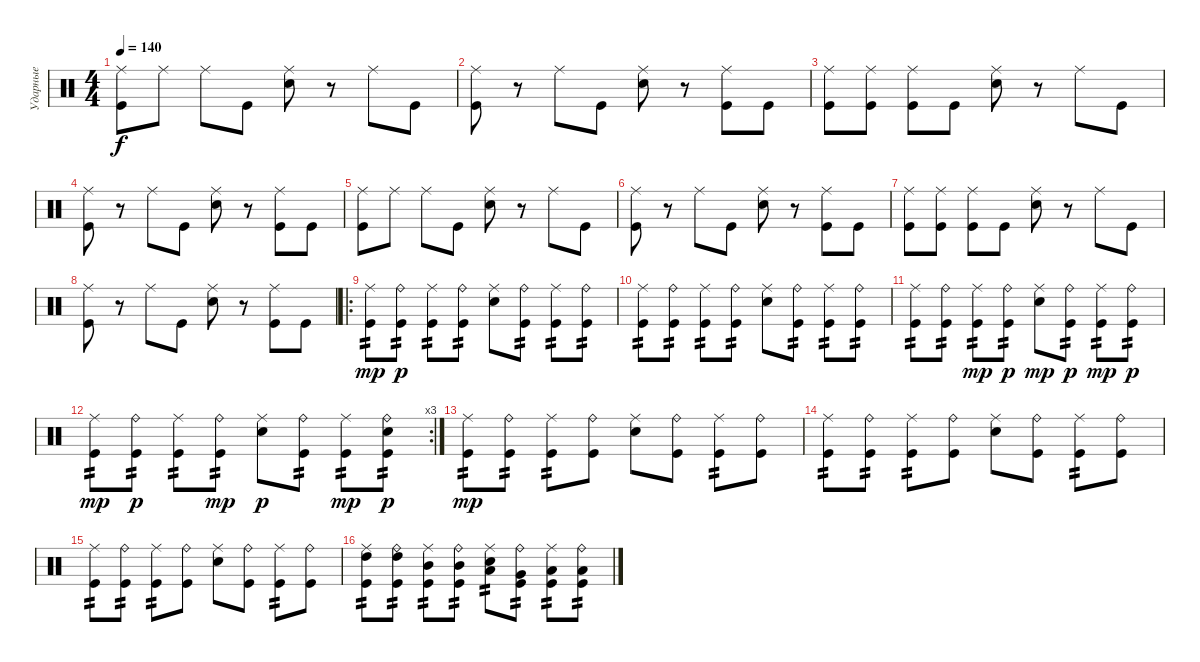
\track ("Ударные" "Ударные") {instrument percussion}
\staff {score}
\articulation defaults
\ts (4 4)
\tempo 140
\clef neutral
\ks c
("Ride (middle)" "Kick (hit)").8{dy f} "Ride (middle)".8 "Ride (middle)".8 "Kick (hit)".8 ("Ride (middle)" "Electric Snare (hit)").8 r.8 "Ride (middle)".8 "Kick (hit)".8 |
("Ride (middle)" "Kick (hit)").8 r.8 "Ride (middle)".8 "Kick (hit)".8 ("Ride (middle)" "Electric Snare (hit)").8 r.8 ("Ride (middle)" "Kick (hit)").8 "Kick (hit)".8 |
("Ride (middle)" "Kick (hit)").8 ("Ride (middle)" "Kick (hit)").8 ("Ride (middle)" "Kick (hit)").8 "Kick (hit)".8 ("Ride (middle)" "Electric Snare (hit)").8 r.8 "Ride (middle)".8 "Kick (hit)".8 |
("Ride (middle)" "Kick (hit)").8 r.8 "Ride (middle)".8 "Kick (hit)".8 ("Ride (middle)" "Electric Snare (hit)").8 r.8 ("Ride (middle)" "Kick (hit)").8 "Kick (hit)".8 |
("Ride (middle)" "Kick (hit)").8 "Ride (middle)".8 "Ride (middle)".8 "Kick (hit)".8 ("Ride (middle)" "Electric Snare (hit)").8 r.8 "Ride (middle)".8 "Kick (hit)".8 |
("Ride (middle)" "Kick (hit)").8 r.8 "Ride (middle)".8 "Kick (hit)".8 ("Ride (middle)" "Electric Snare (hit)").8 r.8 ("Ride (middle)" "Kick (hit)").8 "Kick (hit)".8 |
("Ride (middle)" "Kick (hit)").8 ("Ride (middle)" "Kick (hit)").8 ("Ride (middle)" "Kick (hit)").8 "Kick (hit)".8 ("Ride (middle)" "Electric Snare (hit)").8 r.8 "Ride (middle)".8 "Kick (hit)".8 |
("Ride (middle)" "Kick (hit)").8 r.8 "Ride (middle)".8 "Kick (hit)".8 ("Ride (middle)" "Electric Snare (hit)").8 r.8 ("Ride (middle)" "Kick (hit)").8 "Kick (hit)".8 |
\ro
("Ride (middle)" "Kick (hit)").8{tp 2 dy mp} ("Ride (bell)" "Kick (hit)").8{tp 2 dy p} ("Ride (middle)" "Kick (hit)").8{tp 2} ("Ride (bell)" "Kick (hit)").8{tp 2} ("Ride (middle)" "Electric Snare (hit)").8 ("Ride (bell)" "Kick (hit)").8{tp 2} ("Ride (middle)" "Kick (hit)").8{tp 2} ("Ride (bell)" "Kick (hit)").8{tp 2} |
("Ride (middle)" "Kick (hit)").8{tp 2} ("Ride (bell)" "Kick (hit)").8{tp 2} ("Ride (middle)" "Kick (hit)").8{tp 2} ("Ride (bell)" "Kick (hit)").8{tp 2} ("Ride (middle)" "Electric Snare (hit)").8 ("Ride (bell)" "Kick (hit)").8{tp 2} ("Ride (middle)" "Kick (hit)").8{tp 2} ("Ride (bell)" "Kick (hit)").8{tp 2} |
("Ride (middle)" "Kick (hit)").8{tp 2} ("Ride (bell)" "Kick (hit)").8{tp 2} ("Ride (middle)" "Kick (hit)").8{tp 2 dy mp} ("Ride (bell)" "Kick (hit)").8{tp 2 dy p} ("Ride (middle)" "Electric Snare (hit)").8{dy mp} ("Ride (bell)" "Kick (hit)").8{tp 2 dy p} ("Ride (middle)" "Kick (hit)").8{tp 2 dy mp} ("Ride (bell)" "Kick (hit)").8{tp 2 dy p} |
\rc 3
("Ride (middle)" "Kick (hit)").8{tp 2 dy mp} ("Ride (bell)" "Kick (hit)").8{tp 2 dy p} ("Ride (middle)" "Kick (hit)").8{tp 2} ("Ride (bell)" "Kick (hit)").8{tp 2 dy mp} ("Ride (middle)" "Electric Snare (hit)").8{dy p} ("Ride (bell)" "Kick (hit)").8{tp 2} ("Ride (middle)" "Kick (hit)").8{tp 2 dy mp} ("Ride (bell)" "Electric Snare (hit)" "Kick (hit)").8{tp 2 dy p} |
("Ride (middle)" "Kick (hit)").8{tp 2 dy mp} ("Ride (bell)" "Kick (hit)").8{tp 2} ("Ride (middle)" "Kick (hit)").8{tp 2} ("Ride (bell)" "Kick (hit)").8 ("Ride (middle)" "Electric Snare (hit)").8 ("Ride (bell)" "Kick (hit)").8 ("Ride (middle)" "Kick (hit)").8{tp 2} ("Ride (bell)" "Kick (hit)").8 |
("Ride (middle)" "Kick (hit)").8{tp 2} ("Ride (bell)" "Kick (hit)").8{tp 2} ("Ride (middle)" "Kick (hit)").8{tp 2} ("Ride (bell)" "Kick (hit)").8 ("Ride (middle)" "Electric Snare (hit)").8 ("Ride (bell)" "Kick (hit)").8 ("Ride (middle)" "Kick (hit)").8{tp 2} ("Ride (bell)" "Kick (hit)").8 |
("Ride (middle)" "Kick (hit)").8{tp 2} ("Ride (bell)" "Kick (hit)").8{tp 2} ("Ride (middle)" "Kick (hit)").8{tp 2} ("Ride (bell)" "Kick (hit)").8 ("Ride (middle)" "Electric Snare (hit)").8 ("Ride (bell)" "Kick (hit)").8 ("Ride (middle)" "Kick (hit)").8{tp 2} ("Ride (bell)" "Kick (hit)").8 |
("High Tom (hit)" "Ride (middle)" "Kick (hit)").8{tp 2} ("High Tom (hit)" "Ride (bell)" "Kick (hit)").8{tp 2} ("Mid Tom (hit)" "Ride (middle)" "Kick (hit)").8{tp 2} ("Mid Tom (hit)" "Ride (bell)" "Kick (hit)").8{tp 2} ("Low Tom (hit)" "Ride (middle)" "Electric Snare (hit)").8{tp 2} ("Very Low Tom (hit)" "Ride (bell)" "Kick (hit)").8{tp 2} ("Low Floor Tom (hit)" "Ride (middle)" "Kick (hit)").8{tp 2} ("Low Floor Tom (hit)" "Ride (bell)" "Kick (hit)").8{tp 2}
